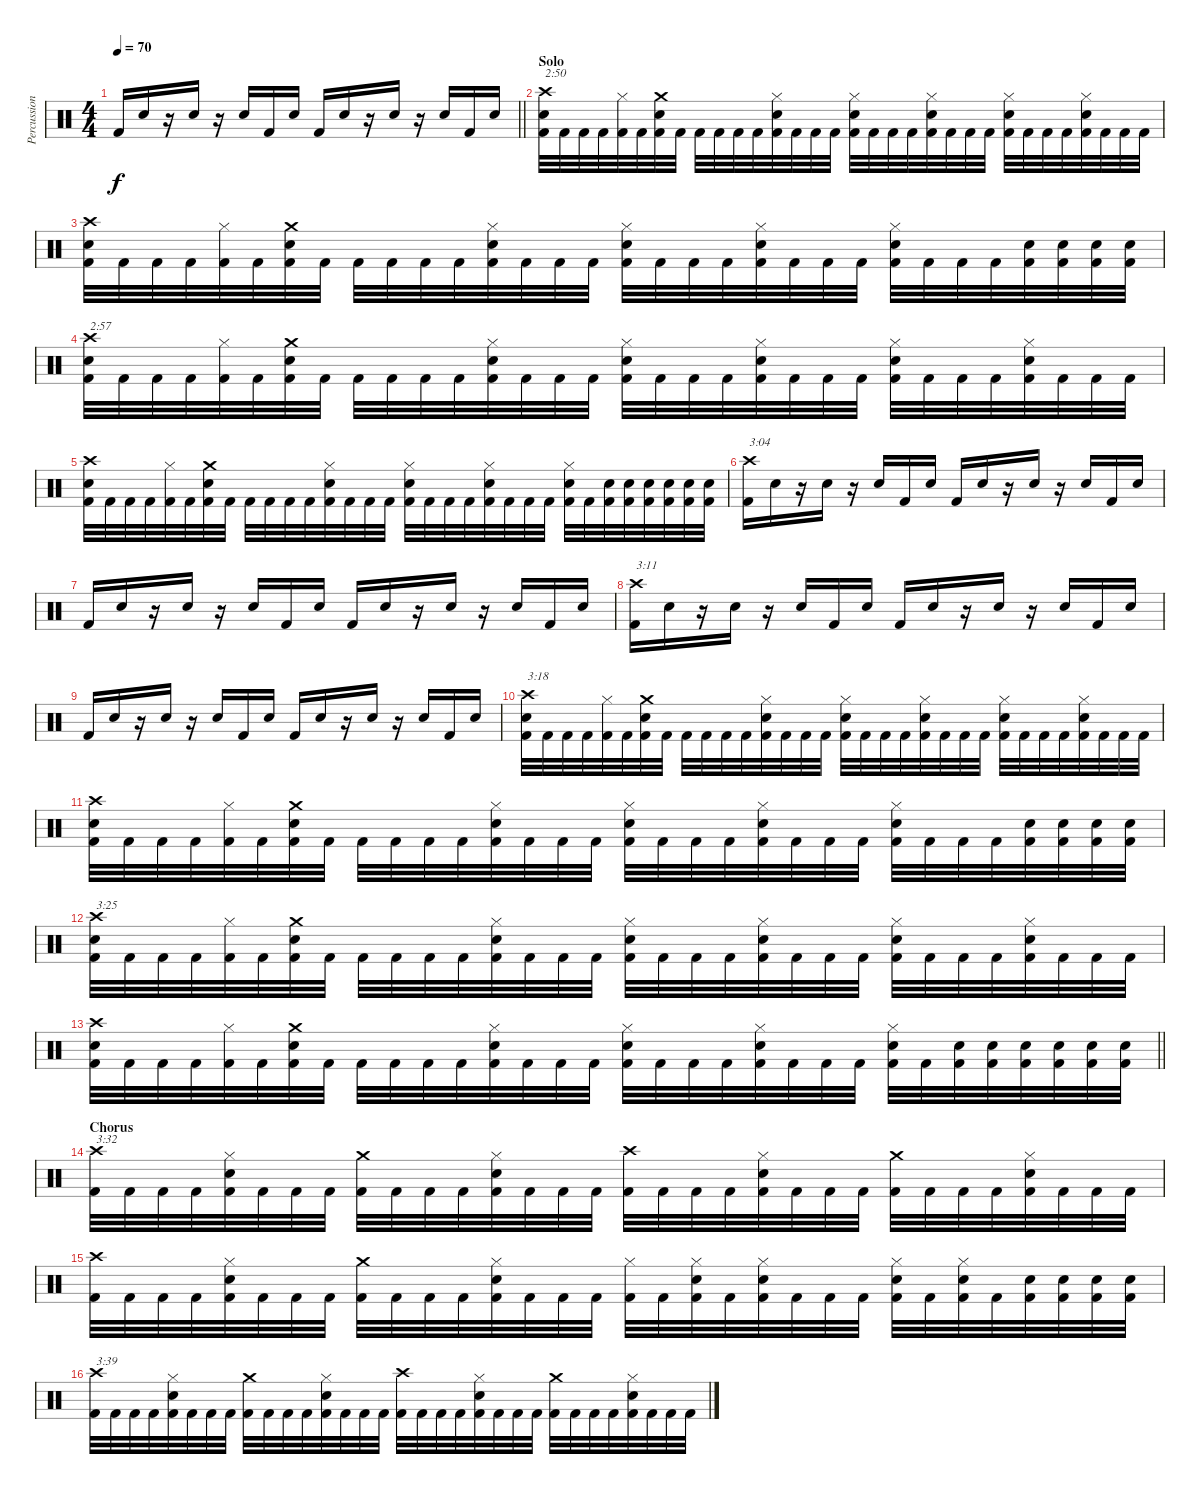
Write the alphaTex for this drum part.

\track ("Percussion" "Percussion") {instrument percussion}
\staff {score}
\articulation defaults
\ts (4 4)
\tempo 70
\clef neutral
\barLineRight lightlight
\ks c "Kick (hit) 2".16{dy f} "Snare (hit) 2".16
r.16 "Snare (hit) 2".16 r.16 "Snare (hit) 2".16 "Kick (hit) 2".16 "Snare (hit) 2".16 "Kick (hit) 2".16 "Snare (hit) 2".16 r.16 "Snare (hit) 2".16 r.16 "Snare (hit) 2".16 "Kick (hit) 2".16 "Snare (hit) 2".16 |
\section ("" "Solo")
("Crash high (hit)" "Snare (hit) 2" "Kick (hit) 2").32{txt "2:50"} "Kick (hit) 2".32 "Kick (hit) 2".32 "Kick (hit) 2".32 ("Hi-Hat (closed)" "Kick (hit) 2").32 "Kick (hit) 2".32 ("Crash medium (hit)" "Snare (hit) 2" "Kick (hit) 2").32 "Kick (hit) 2".32 "Kick (hit) 2".32 "Kick (hit) 2".32 "Kick (hit) 2".32 "Kick (hit) 2".32 ("Hi-Hat (closed)" "Snare (hit) 2" "Kick (hit) 2").32 "Kick (hit) 2".32 "Kick (hit) 2".32 "Kick (hit) 2".32 ("Hi-Hat (closed)" "Snare (hit) 2" "Kick (hit) 2").32 "Kick (hit) 2".32 "Kick (hit) 2".32 "Kick (hit) 2".32 ("Hi-Hat (closed)" "Snare (hit) 2" "Kick (hit) 2").32 "Kick (hit) 2".32 "Kick (hit) 2".32 "Kick (hit) 2".32 ("Hi-Hat (closed)" "Snare (hit) 2" "Kick (hit) 2").32 "Kick (hit) 2".32 "Kick (hit) 2".32 "Kick (hit) 2".32 ("Hi-Hat (closed)" "Snare (hit) 2" "Kick (hit) 2").32 "Kick (hit) 2".32 "Kick (hit) 2".32 "Kick (hit) 2".32 |
("Crash high (hit)" "Snare (hit) 2" "Kick (hit) 2").32 "Kick (hit) 2".32 "Kick (hit) 2".32 "Kick (hit) 2".32 ("Hi-Hat (closed)" "Kick (hit) 2").32 "Kick (hit) 2".32 ("Crash medium (hit)" "Snare (hit) 2" "Kick (hit) 2").32 "Kick (hit) 2".32 "Kick (hit) 2".32 "Kick (hit) 2".32 "Kick (hit) 2".32 "Kick (hit) 2".32 ("Hi-Hat (closed)" "Snare (hit) 2" "Kick (hit) 2").32 "Kick (hit) 2".32 "Kick (hit) 2".32 "Kick (hit) 2".32 ("Hi-Hat (closed)" "Snare (hit) 2" "Kick (hit) 2").32 "Kick (hit) 2".32 "Kick (hit) 2".32 "Kick (hit) 2".32 ("Hi-Hat (closed)" "Snare (hit) 2" "Kick (hit) 2").32 "Kick (hit) 2".32 "Kick (hit) 2".32 "Kick (hit) 2".32 ("Hi-Hat (closed)" "Snare (hit) 2" "Kick (hit) 2").32 "Kick (hit) 2".32 "Kick (hit) 2".32 "Kick (hit) 2".32 ("Snare (hit) 2" "Kick (hit) 2").32 ("Snare (hit) 2" "Kick (hit) 2").32 ("Snare (hit) 2" "Kick (hit) 2").32 ("Snare (hit) 2" "Kick (hit) 2").32 |
("Crash high (hit)" "Snare (hit) 2" "Kick (hit) 2").32{txt "2:57"} "Kick (hit) 2".32 "Kick (hit) 2".32 "Kick (hit) 2".32 ("Hi-Hat (closed)" "Kick (hit) 2").32 "Kick (hit) 2".32 ("Crash medium (hit)" "Snare (hit) 2" "Kick (hit) 2").32 "Kick (hit) 2".32 "Kick (hit) 2".32 "Kick (hit) 2".32 "Kick (hit) 2".32 "Kick (hit) 2".32 ("Hi-Hat (closed)" "Snare (hit) 2" "Kick (hit) 2").32 "Kick (hit) 2".32 "Kick (hit) 2".32 "Kick (hit) 2".32 ("Hi-Hat (closed)" "Snare (hit) 2" "Kick (hit) 2").32 "Kick (hit) 2".32 "Kick (hit) 2".32 "Kick (hit) 2".32 ("Hi-Hat (closed)" "Snare (hit) 2" "Kick (hit) 2").32 "Kick (hit) 2".32 "Kick (hit) 2".32 "Kick (hit) 2".32 ("Hi-Hat (closed)" "Snare (hit) 2" "Kick (hit) 2").32 "Kick (hit) 2".32 "Kick (hit) 2".32 "Kick (hit) 2".32 ("Hi-Hat (closed)" "Snare (hit) 2" "Kick (hit) 2").32 "Kick (hit) 2".32 "Kick (hit) 2".32 "Kick (hit) 2".32 |
("Crash high (hit)" "Snare (hit) 2" "Kick (hit) 2").32 "Kick (hit) 2".32 "Kick (hit) 2".32 "Kick (hit) 2".32 ("Hi-Hat (closed)" "Kick (hit) 2").32 "Kick (hit) 2".32 ("Crash medium (hit)" "Snare (hit) 2" "Kick (hit) 2").32 "Kick (hit) 2".32 "Kick (hit) 2".32 "Kick (hit) 2".32 "Kick (hit) 2".32 "Kick (hit) 2".32 ("Hi-Hat (closed)" "Snare (hit) 2" "Kick (hit) 2").32 "Kick (hit) 2".32 "Kick (hit) 2".32 "Kick (hit) 2".32 ("Hi-Hat (closed)" "Snare (hit) 2" "Kick (hit) 2").32 "Kick (hit) 2".32 "Kick (hit) 2".32 "Kick (hit) 2".32 ("Hi-Hat (closed)" "Snare (hit) 2" "Kick (hit) 2").32 "Kick (hit) 2".32 "Kick (hit) 2".32 "Kick (hit) 2".32 ("Hi-Hat (closed)" "Snare (hit) 2" "Kick (hit) 2").32 "Kick (hit) 2".32 ("Snare (hit) 2" "Kick (hit) 2").32 ("Snare (hit) 2" "Kick (hit) 2").32 ("Snare (hit) 2" "Kick (hit) 2").32 ("Snare (hit) 2" "Kick (hit) 2").32 ("Snare (hit) 2" "Kick (hit) 2").32 ("Snare (hit) 2" "Kick (hit) 2").32 |
("Crash high (hit)" "Kick (hit) 2").16{txt "3:04"} "Snare (hit) 2".16 r.16 "Snare (hit) 2".16 r.16 "Snare (hit) 2".16 "Kick (hit) 2".16 "Snare (hit) 2".16 "Kick (hit) 2".16 "Snare (hit) 2".16 r.16 "Snare (hit) 2".16 r.16 "Snare (hit) 2".16 "Kick (hit) 2".16 "Snare (hit) 2".16 |
"Kick (hit) 2".16 "Snare (hit) 2".16 r.16 "Snare (hit) 2".16 r.16 "Snare (hit) 2".16 "Kick (hit) 2".16 "Snare (hit) 2".16 "Kick (hit) 2".16 "Snare (hit) 2".16 r.16 "Snare (hit) 2".16 r.16 "Snare (hit) 2".16 "Kick (hit) 2".16 "Snare (hit) 2".16 |
("Crash high (hit)" "Kick (hit) 2").16{txt "3:11"} "Snare (hit) 2".16 r.16 "Snare (hit) 2".16 r.16 "Snare (hit) 2".16 "Kick (hit) 2".16 "Snare (hit) 2".16 "Kick (hit) 2".16 "Snare (hit) 2".16 r.16 "Snare (hit) 2".16 r.16 "Snare (hit) 2".16 "Kick (hit) 2".16 "Snare (hit) 2".16 |
"Kick (hit) 2".16 "Snare (hit) 2".16 r.16 "Snare (hit) 2".16 r.16 "Snare (hit) 2".16 "Kick (hit) 2".16 "Snare (hit) 2".16 "Kick (hit) 2".16 "Snare (hit) 2".16 r.16 "Snare (hit) 2".16 r.16 "Snare (hit) 2".16 "Kick (hit) 2".16 "Snare (hit) 2".16 |
("Crash high (hit)" "Snare (hit) 2" "Kick (hit) 2").32{txt "3:18"} "Kick (hit) 2".32 "Kick (hit) 2".32 "Kick (hit) 2".32 ("Hi-Hat (closed)" "Kick (hit) 2").32 "Kick (hit) 2".32 ("Crash medium (hit)" "Snare (hit) 2" "Kick (hit) 2").32 "Kick (hit) 2".32 "Kick (hit) 2".32 "Kick (hit) 2".32 "Kick (hit) 2".32 "Kick (hit) 2".32 ("Hi-Hat (closed)" "Snare (hit) 2" "Kick (hit) 2").32 "Kick (hit) 2".32 "Kick (hit) 2".32 "Kick (hit) 2".32 ("Hi-Hat (closed)" "Snare (hit) 2" "Kick (hit) 2").32 "Kick (hit) 2".32 "Kick (hit) 2".32 "Kick (hit) 2".32 ("Hi-Hat (closed)" "Snare (hit) 2" "Kick (hit) 2").32 "Kick (hit) 2".32 "Kick (hit) 2".32 "Kick (hit) 2".32 ("Hi-Hat (closed)" "Snare (hit) 2" "Kick (hit) 2").32 "Kick (hit) 2".32 "Kick (hit) 2".32 "Kick (hit) 2".32 ("Hi-Hat (closed)" "Snare (hit) 2" "Kick (hit) 2").32 "Kick (hit) 2".32 "Kick (hit) 2".32 "Kick (hit) 2".32 |
("Crash high (hit)" "Snare (hit) 2" "Kick (hit) 2").32 "Kick (hit) 2".32 "Kick (hit) 2".32 "Kick (hit) 2".32 ("Hi-Hat (closed)" "Kick (hit) 2").32 "Kick (hit) 2".32 ("Crash medium (hit)" "Snare (hit) 2" "Kick (hit) 2").32 "Kick (hit) 2".32 "Kick (hit) 2".32 "Kick (hit) 2".32 "Kick (hit) 2".32 "Kick (hit) 2".32 ("Hi-Hat (closed)" "Snare (hit) 2" "Kick (hit) 2").32 "Kick (hit) 2".32 "Kick (hit) 2".32 "Kick (hit) 2".32 ("Hi-Hat (closed)" "Snare (hit) 2" "Kick (hit) 2").32 "Kick (hit) 2".32 "Kick (hit) 2".32 "Kick (hit) 2".32 ("Hi-Hat (closed)" "Snare (hit) 2" "Kick (hit) 2").32 "Kick (hit) 2".32 "Kick (hit) 2".32 "Kick (hit) 2".32 ("Hi-Hat (closed)" "Snare (hit) 2" "Kick (hit) 2").32 "Kick (hit) 2".32 "Kick (hit) 2".32 "Kick (hit) 2".32 ("Snare (hit) 2" "Kick (hit) 2").32 ("Snare (hit) 2" "Kick (hit) 2").32 ("Snare (hit) 2" "Kick (hit) 2").32 ("Snare (hit) 2" "Kick (hit) 2").32 |
("Crash high (hit)" "Snare (hit) 2" "Kick (hit) 2").32{txt "3:25"} "Kick (hit) 2".32 "Kick (hit) 2".32 "Kick (hit) 2".32 ("Hi-Hat (closed)" "Kick (hit) 2").32 "Kick (hit) 2".32 ("Crash medium (hit)" "Snare (hit) 2" "Kick (hit) 2").32 "Kick (hit) 2".32 "Kick (hit) 2".32 "Kick (hit) 2".32 "Kick (hit) 2".32 "Kick (hit) 2".32 ("Hi-Hat (closed)" "Snare (hit) 2" "Kick (hit) 2").32 "Kick (hit) 2".32 "Kick (hit) 2".32 "Kick (hit) 2".32 ("Hi-Hat (closed)" "Snare (hit) 2" "Kick (hit) 2").32 "Kick (hit) 2".32 "Kick (hit) 2".32 "Kick (hit) 2".32 ("Hi-Hat (closed)" "Snare (hit) 2" "Kick (hit) 2").32 "Kick (hit) 2".32 "Kick (hit) 2".32 "Kick (hit) 2".32 ("Hi-Hat (closed)" "Snare (hit) 2" "Kick (hit) 2").32 "Kick (hit) 2".32 "Kick (hit) 2".32 "Kick (hit) 2".32 ("Hi-Hat (closed)" "Snare (hit) 2" "Kick (hit) 2").32 "Kick (hit) 2".32 "Kick (hit) 2".32 "Kick (hit) 2".32 |
\barLineRight lightlight
("Crash high (hit)" "Snare (hit) 2" "Kick (hit) 2").32 "Kick (hit) 2".32 "Kick (hit) 2".32 "Kick (hit) 2".32 ("Hi-Hat (closed)" "Kick (hit) 2").32 "Kick (hit) 2".32 ("Crash medium (hit)" "Snare (hit) 2" "Kick (hit) 2").32 "Kick (hit) 2".32 "Kick (hit) 2".32 "Kick (hit) 2".32 "Kick (hit) 2".32 "Kick (hit) 2".32 ("Hi-Hat (closed)" "Snare (hit) 2" "Kick (hit) 2").32 "Kick (hit) 2".32 "Kick (hit) 2".32 "Kick (hit) 2".32 ("Hi-Hat (closed)" "Snare (hit) 2" "Kick (hit) 2").32 "Kick (hit) 2".32 "Kick (hit) 2".32 "Kick (hit) 2".32 ("Hi-Hat (closed)" "Snare (hit) 2" "Kick (hit) 2").32 "Kick (hit) 2".32 "Kick (hit) 2".32 "Kick (hit) 2".32 ("Hi-Hat (closed)" "Snare (hit) 2" "Kick (hit) 2").32 "Kick (hit) 2".32 ("Snare (hit) 2" "Kick (hit) 2").32 ("Snare (hit) 2" "Kick (hit) 2").32 ("Snare (hit) 2" "Kick (hit) 2").32 ("Snare (hit) 2" "Kick (hit) 2").32 ("Snare (hit) 2" "Kick (hit) 2").32 ("Snare (hit) 2" "Kick (hit) 2").32 |
\section ("" "Chorus")
("Crash high (hit)" "Kick (hit) 2").32{txt "3:32"} "Kick (hit) 2".32 "Kick (hit) 2".32 "Kick (hit) 2".32 ("Hi-Hat (closed)" "Snare (hit) 2" "Kick (hit) 2").32 "Kick (hit) 2".32 "Kick (hit) 2".32 "Kick (hit) 2".32 ("Crash medium (hit)" "Kick (hit) 2").32 "Kick (hit) 2".32 "Kick (hit) 2".32 "Kick (hit) 2".32 ("Hi-Hat (closed)" "Snare (hit) 2" "Kick (hit) 2").32 "Kick (hit) 2".32 "Kick (hit) 2".32 "Kick (hit) 2".32 ("Crash high (hit)" "Kick (hit) 2").32 "Kick (hit) 2".32 "Kick (hit) 2".32 "Kick (hit) 2".32 ("Hi-Hat (closed)" "Snare (hit) 2" "Kick (hit) 2").32 "Kick (hit) 2".32 "Kick (hit) 2".32 "Kick (hit) 2".32 ("Crash medium (hit)" "Kick (hit) 2").32 "Kick (hit) 2".32 "Kick (hit) 2".32 "Kick (hit) 2".32 ("Hi-Hat (closed)" "Snare (hit) 2" "Kick (hit) 2").32 "Kick (hit) 2".32 "Kick (hit) 2".32 "Kick (hit) 2".32 |
("Crash high (hit)" "Kick (hit) 2").32 "Kick (hit) 2".32 "Kick (hit) 2".32 "Kick (hit) 2".32 ("Hi-Hat (closed)" "Snare (hit) 2" "Kick (hit) 2").32 "Kick (hit) 2".32 "Kick (hit) 2".32 "Kick (hit) 2".32 ("Crash medium (hit)" "Kick (hit) 2").32 "Kick (hit) 2".32 "Kick (hit) 2".32 "Kick (hit) 2".32 ("Hi-Hat (closed)" "Snare (hit) 2" "Kick (hit) 2").32 "Kick (hit) 2".32 "Kick (hit) 2".32 "Kick (hit) 2".32 ("Hi-Hat (closed)" "Kick (hit) 2").32 "Kick (hit) 2".32 ("Hi-Hat (closed)" "Snare (hit) 2" "Kick (hit) 2").32 "Kick (hit) 2".32 ("Hi-Hat (closed)" "Snare (hit) 2" "Kick (hit) 2").32 "Kick (hit) 2".32 "Kick (hit) 2".32 "Kick (hit) 2".32 ("Hi-Hat (closed)" "Snare (hit) 2" "Kick (hit) 2").32 "Kick (hit) 2".32 ("Hi-Hat (closed)" "Snare (hit) 2" "Kick (hit) 2").32 "Kick (hit) 2".32 ("Snare (hit) 2" "Kick (hit) 2").32 ("Snare (hit) 2" "Kick (hit) 2").32 ("Snare (hit) 2" "Kick (hit) 2").32 ("Snare (hit) 2" "Kick (hit) 2").32 |
("Crash high (hit)" "Kick (hit) 2").32{txt "3:39"} "Kick (hit) 2".32 "Kick (hit) 2".32 "Kick (hit) 2".32 ("Hi-Hat (closed)" "Snare (hit) 2" "Kick (hit) 2").32 "Kick (hit) 2".32 "Kick (hit) 2".32 "Kick (hit) 2".32 ("Crash medium (hit)" "Kick (hit) 2").32 "Kick (hit) 2".32 "Kick (hit) 2".32 "Kick (hit) 2".32 ("Hi-Hat (closed)" "Snare (hit) 2" "Kick (hit) 2").32 "Kick (hit) 2".32 "Kick (hit) 2".32 "Kick (hit) 2".32 ("Crash high (hit)" "Kick (hit) 2").32 "Kick (hit) 2".32 "Kick (hit) 2".32 "Kick (hit) 2".32 ("Hi-Hat (closed)" "Snare (hit) 2" "Kick (hit) 2").32 "Kick (hit) 2".32 "Kick (hit) 2".32 "Kick (hit) 2".32 ("Crash medium (hit)" "Kick (hit) 2").32 "Kick (hit) 2".32 "Kick (hit) 2".32 "Kick (hit) 2".32 ("Hi-Hat (closed)" "Snare (hit) 2" "Kick (hit) 2").32 "Kick (hit) 2".32 "Kick (hit) 2".32 "Kick (hit) 2".32
